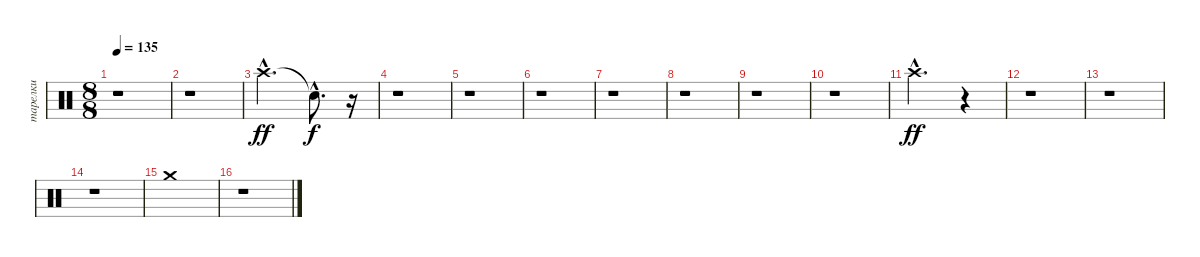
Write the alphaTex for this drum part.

\track ("тарелки" "тарелки") {instrument percussion}
\staff {score}
\articulation defaults
\ts (8 8)
\tempo 135
\clef neutral
\ks c
r.1{dy ff} |
r.1 |
"Crash high (hit)"{hac}.2{d} "Snare (hit)"{hac t}.8{d dy f} r.16 |
r.1 |
r.1 |
r.1 |
r.1 |
r.1 |
r.1 |
r.1 |
"Crash high (hit)"{hac}.2{d dy ff} r.4 |
r.1 |
r.1 |
r.1 |
"Crash medium (hit)".1 |
r.1
